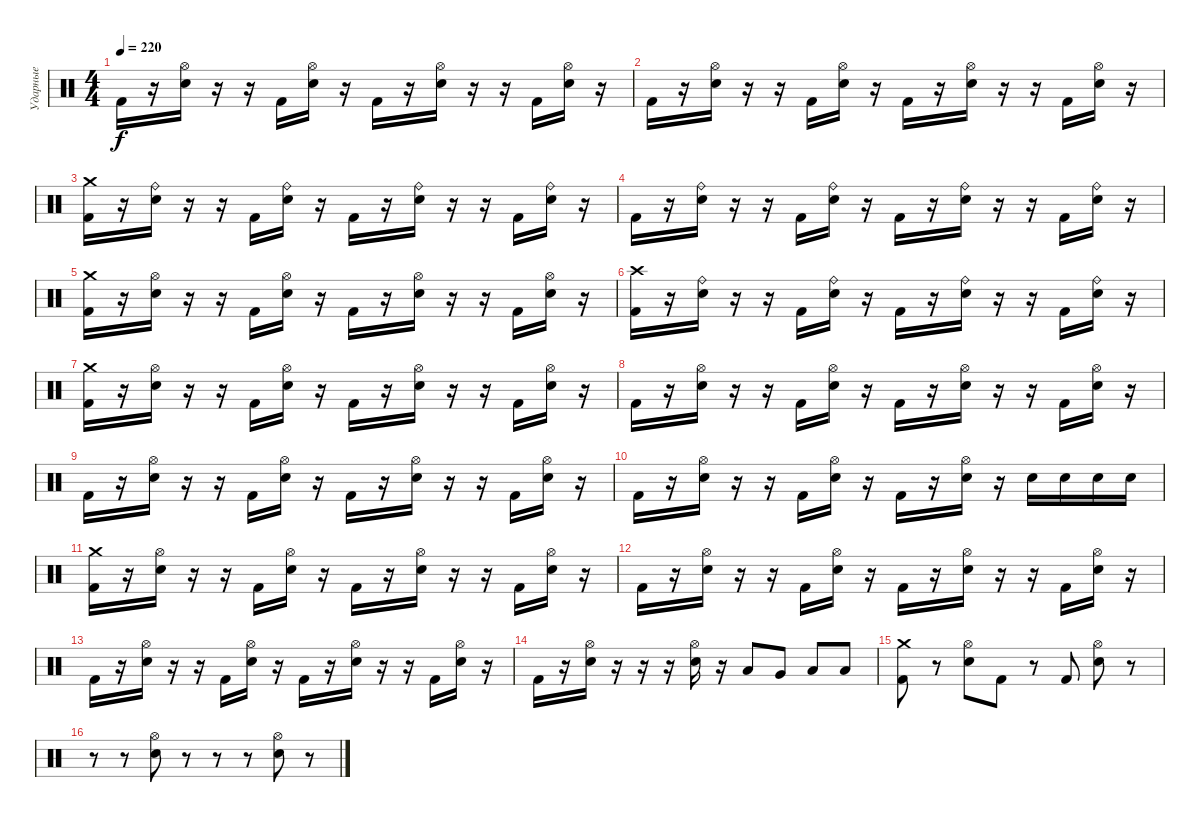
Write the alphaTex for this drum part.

\track ("Ударные" "Ударные") {instrument percussion}
\staff {score}
\articulation defaults
\ts (4 4)
\tempo 220
\clef neutral
\ks c "Kick (hit) 2".16{dy f}
r.16 ("Hi-Hat (open)" "Snare (hit) 2").16 r.16 r.16 "Kick (hit) 2".16 ("Hi-Hat (open)" "Snare (hit) 2").16 r.16 "Kick (hit) 2".16 r.16 ("Hi-Hat (open)" "Snare (hit) 2").16 r.16 r.16 "Kick (hit) 2".16 ("Hi-Hat (open)" "Snare (hit) 2").16 r.16 |
"Kick (hit) 2".16 r.16 ("Hi-Hat (open)" "Snare (hit) 2").16 r.16 r.16 "Kick (hit) 2".16 ("Hi-Hat (open)" "Snare (hit) 2").16 r.16 "Kick (hit) 2".16 r.16 ("Hi-Hat (open)" "Snare (hit) 2").16 r.16 r.16 "Kick (hit) 2".16 ("Hi-Hat (open)" "Snare (hit) 2").16 r.16 |
("Crash medium (hit)" "Kick (hit) 2").16 r.16 ("Ride (bell)" "Snare (hit) 2").16 r.16 r.16 "Kick (hit) 2".16 ("Ride (bell)" "Snare (hit) 2").16 r.16 "Kick (hit) 2".16 r.16 ("Ride (bell)" "Snare (hit) 2").16 r.16 r.16 "Kick (hit) 2".16 ("Ride (bell)" "Snare (hit) 2").16 r.16 |
"Kick (hit) 2".16 r.16 ("Ride (bell)" "Snare (hit) 2").16 r.16 r.16 "Kick (hit) 2".16 ("Ride (bell)" "Snare (hit) 2").16 r.16 "Kick (hit) 2".16 r.16 ("Ride (bell)" "Snare (hit) 2").16 r.16 r.16 "Kick (hit) 2".16 ("Ride (bell)" "Snare (hit) 2").16 r.16 |
("Crash medium (hit)" "Kick (hit) 2").16 r.16 ("Hi-Hat (open)" "Snare (hit) 2").16 r.16 r.16 "Kick (hit) 2".16 ("Hi-Hat (open)" "Snare (hit) 2").16 r.16 "Kick (hit) 2".16 r.16 ("Hi-Hat (open)" "Snare (hit) 2").16 r.16 r.16 "Kick (hit) 2".16 ("Hi-Hat (open)" "Snare (hit) 2").16 r.16 |
("Crash high (hit)" "Kick (hit) 2").16 r.16 ("Ride (bell)" "Snare (hit) 2").16 r.16 r.16 "Kick (hit) 2".16 ("Ride (bell)" "Snare (hit) 2").16 r.16 "Kick (hit) 2".16 r.16 ("Ride (bell)" "Snare (hit) 2").16 r.16 r.16 "Kick (hit) 2".16 ("Ride (bell)" "Snare (hit) 2").16 r.16 |
("Crash medium (hit)" "Kick (hit) 2").16 r.16 ("Hi-Hat (open)" "Snare (hit) 2").16 r.16 r.16 "Kick (hit) 2".16 ("Hi-Hat (open)" "Snare (hit) 2").16 r.16 "Kick (hit) 2".16 r.16 ("Hi-Hat (open)" "Snare (hit) 2").16 r.16 r.16 "Kick (hit) 2".16 ("Hi-Hat (open)" "Snare (hit) 2").16 r.16 |
"Kick (hit) 2".16 r.16 ("Hi-Hat (open)" "Snare (hit) 2").16 r.16 r.16 "Kick (hit) 2".16 ("Hi-Hat (open)" "Snare (hit) 2").16 r.16 "Kick (hit) 2".16 r.16 ("Hi-Hat (open)" "Snare (hit) 2").16 r.16 r.16 "Kick (hit) 2".16 ("Hi-Hat (open)" "Snare (hit) 2").16 r.16 |
"Kick (hit) 2".16 r.16 ("Hi-Hat (open)" "Snare (hit) 2").16 r.16 r.16 "Kick (hit) 2".16 ("Hi-Hat (open)" "Snare (hit) 2").16 r.16 "Kick (hit) 2".16 r.16 ("Hi-Hat (open)" "Snare (hit) 2").16 r.16 r.16 "Kick (hit) 2".16 ("Hi-Hat (open)" "Snare (hit) 2").16 r.16 |
"Kick (hit) 2".16 r.16 ("Hi-Hat (open)" "Snare (hit) 2").16 r.16 r.16 "Kick (hit) 2".16 ("Hi-Hat (open)" "Snare (hit) 2").16 r.16 "Kick (hit) 2".16 r.16 ("Hi-Hat (open)" "Snare (hit) 2").16 r.16 "Snare (hit) 2".16 "Snare (hit) 2".16 "Snare (hit) 2".16 "Snare (hit) 2".16 |
("Crash medium (hit)" "Kick (hit) 2").16 r.16 ("Hi-Hat (open)" "Snare (hit) 2").16 r.16 r.16 "Kick (hit) 2".16 ("Hi-Hat (open)" "Snare (hit) 2").16 r.16 "Kick (hit) 2".16 r.16 ("Hi-Hat (open)" "Snare (hit) 2").16 r.16 r.16 "Kick (hit) 2".16 ("Hi-Hat (open)" "Snare (hit) 2").16 r.16 |
"Kick (hit) 2".16 r.16 ("Hi-Hat (open)" "Snare (hit) 2").16 r.16 r.16 "Kick (hit) 2".16 ("Hi-Hat (open)" "Snare (hit) 2").16 r.16 "Kick (hit) 2".16 r.16 ("Hi-Hat (open)" "Snare (hit) 2").16 r.16 r.16 "Kick (hit) 2".16 ("Hi-Hat (open)" "Snare (hit) 2").16 r.16 |
"Kick (hit) 2".16 r.16 ("Hi-Hat (open)" "Snare (hit) 2").16 r.16 r.16 "Kick (hit) 2".16 ("Hi-Hat (open)" "Snare (hit) 2").16 r.16 "Kick (hit) 2".16 r.16 ("Hi-Hat (open)" "Snare (hit) 2").16 r.16 r.16 "Kick (hit) 2".16 ("Hi-Hat (open)" "Snare (hit) 2").16 r.16 |
"Kick (hit) 2".16 r.16 ("Hi-Hat (open)" "Snare (hit) 2").16 r.16 r.16 r.16 ("Hi-Hat (open)" "Snare (hit) 2").16 r.16 "Low Tom (hit)".8 "Very Low Tom (hit)".8 "Low Floor Tom (hit)".8 "Low Floor Tom (hit)".8 |
("Crash medium (hit)" "Kick (hit) 2").8 r.8 ("Hi-Hat (open)" "Snare (hit) 2").8 "Kick (hit) 2".8 r.8 "Kick (hit) 2".8 ("Hi-Hat (open)" "Snare (hit) 2").8 r.8 |
r.8 r.8 ("Hi-Hat (open)" "Snare (hit) 2").8 r.8 r.8 r.8 ("Hi-Hat (open)" "Snare (hit) 2").8 r.8
